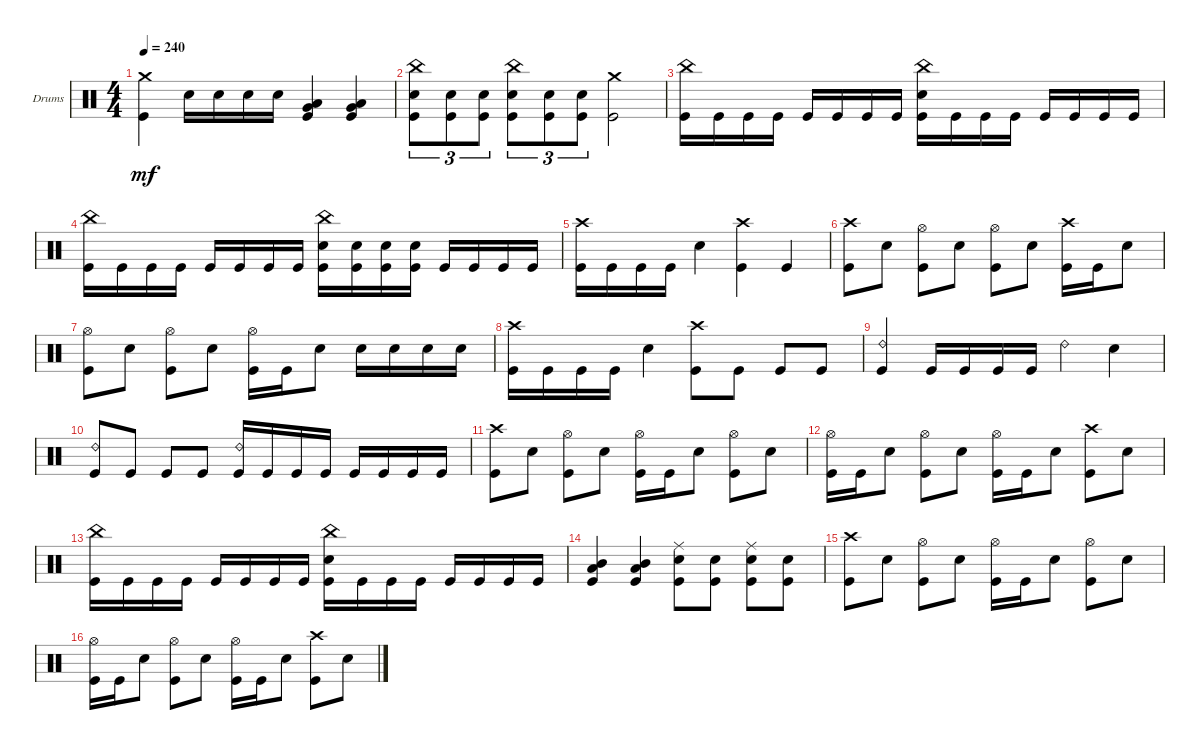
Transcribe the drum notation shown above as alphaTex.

\defaultSystemsLayout 4
\bracketExtendMode groupsimilarinstruments
\firstSystemTrackNameOrientation horizontal
\otherSystemsTrackNameOrientation horizontal
\track ("Drumkit" "Drums") {instrument percussion}
\staff {score}
\articulation defaults
\ts (4 4)
\tempo 240
\clef neutral
\scale
0.333333
\ks c
("Crash medium (hit)" "Kick (hit)").4{dy mf} "Snare (hit) 2".16 "Snare (hit) 2".16 "Snare (hit) 2".16 "Snare (hit) 2".16 ("Low Tom (hit)" "Very Low Tom (hit)" "Kick (hit)").4 ("Low Tom (hit)" "Very Low Tom (hit)" "Kick (hit)").4 |
\scale
0.333333 ("Snare (hit) 2" "China (hit)" "Kick (hit)").8{tu (3 2)} ("Snare (hit) 2" "Kick (hit)").8{tu (3 2)} ("Snare (hit) 2" "Kick (hit)").8{tu (3 2)} ("Snare (hit) 2" "China (hit)" "Kick (hit)").8{tu (3 2)} ("Snare (hit) 2" "Kick (hit)").8{tu (3 2)} ("Snare (hit) 2" "Kick (hit)").8{tu (3 2)} ("Crash medium (hit)" "Kick (hit)").2 |
\scale
0.333333 ("Kick (hit)" "China (hit)").16 "Kick (hit)".16 "Kick (hit)".16 "Kick (hit)".16 "Kick (hit)".16 "Kick (hit)".16 "Kick (hit)".16 "Kick (hit)".16 ("Kick (hit)" "Snare (hit) 2" "China (hit)").16 "Kick (hit)".16 "Kick (hit)".16 "Kick (hit)".16 "Kick (hit)".16 "Kick (hit)".16 "Kick (hit)".16 "Kick (hit)".16 |
\scale
0.333333 ("Kick (hit)" "China (hit)").16 "Kick (hit)".16 "Kick (hit)".16 "Kick (hit)".16 "Kick (hit)".16 "Kick (hit)".16 "Kick (hit)".16 "Kick (hit)".16 ("Kick (hit)" "Snare (hit) 2" "China (hit)").16 ("Kick (hit)" "Snare (hit) 2").16 ("Kick (hit)" "Snare (hit) 2").16 ("Kick (hit)" "Snare (hit) 2").16 "Kick (hit)".16 "Kick (hit)".16 "Kick (hit)".16 "Kick (hit)".16 |
\scale
0.333333 ("Kick (hit)" "Crash high (hit)").16 "Kick (hit)".16 "Kick (hit)".16 "Kick (hit)".16 "Snare (hit) 2".4 ("Kick (hit)" "Crash high (hit)").4 "Kick (hit)".4 |
\scale
0.333333 ("Crash high (hit)" "Kick (hit)").8 "Snare (hit) 2".8 ("Kick (hit)" "Hi-Hat (open)").8 "Snare (hit) 2".8 ("Kick (hit)" "Hi-Hat (open)").8 "Snare (hit) 2".8 ("Kick (hit)" "Crash high (hit)").16 "Kick (hit)".16 "Snare (hit) 2".8 |
\scale
0.333333 ("Kick (hit)" "Hi-Hat (open)").8 "Snare (hit) 2".8 ("Kick (hit)" "Hi-Hat (open)").8 "Snare (hit) 2".8 ("Kick (hit)" "Hi-Hat (open)").16 "Kick (hit)".16 "Snare (hit) 2".8 "Snare (hit) 2".16 "Snare (hit) 2".16 "Snare (hit) 2".16 "Snare (hit) 2".16 |
\scale
0.333333 ("Kick (hit)" "Crash high (hit)").16 "Kick (hit)".16 "Kick (hit)".16 "Kick (hit)".16 "Snare (hit) 2".4 ("Kick (hit)" "Crash high (hit)").8 "Kick (hit)".8 "Kick (hit)".8 "Kick (hit)".8 |
\scale
0.333333 ("Ride (bell) 2" "Kick (hit)").4 "Kick (hit)".16 "Kick (hit)".16 "Kick (hit)".16 "Kick (hit)".16 "Ride (bell) 2".4 "Snare (hit) 2".4 |
\scale
0.333333 ("Kick (hit)" "Ride (bell) 2").8 "Kick (hit)".8 "Kick (hit)".8 "Kick (hit)".8 ("Kick (hit)" "Ride (bell) 2").16 "Kick (hit)".16 "Kick (hit)".16 "Kick (hit)".16 "Kick (hit)".16 "Kick (hit)".16 "Kick (hit)".16 "Kick (hit)".16 |
\scale
0.333333 ("Crash high (hit)" "Kick (hit)").8 "Snare (hit) 2".8 ("Kick (hit)" "Hi-Hat (open)").8 "Snare (hit) 2".8 ("Kick (hit)" "Hi-Hat (open)").16 "Kick (hit)".16 "Snare (hit) 2".8 ("Kick (hit)" "Hi-Hat (open)").8 "Snare (hit) 2".8 |
\scale
0.333333 ("Kick (hit)" "Hi-Hat (open)").16 "Kick (hit)".16 "Snare (hit) 2".8 ("Kick (hit)" "Hi-Hat (open)").8 "Snare (hit) 2".8 ("Kick (hit)" "Hi-Hat (open)").16 "Kick (hit)".16 "Snare (hit) 2".8 ("Kick (hit)" "Crash high (hit)").8 "Snare (hit) 2".8 |
\scale
0.333333 ("Kick (hit)" "China (hit)").16 "Kick (hit)".16 "Kick (hit)".16 "Kick (hit)".16 "Kick (hit)".16 "Kick (hit)".16 "Kick (hit)".16 "Kick (hit)".16 ("Kick (hit)" "Snare (hit) 2" "China (hit)").16 "Kick (hit)".16 "Kick (hit)".16 "Kick (hit)".16 "Kick (hit)".16 "Kick (hit)".16 "Kick (hit)".16 "Kick (hit)".16 |
\scale
0.333333 ("Mid Tom (hit)" "Low Tom (hit)" "Kick (hit)").4 ("Mid Tom (hit)" "Low Tom (hit)" "Kick (hit)").4 ("Snare (hit) 2" "Kick (hit)" "Ride (middle)").8 ("Snare (hit) 2" "Kick (hit)").8 ("Snare (hit) 2" "Kick (hit)" "Ride (middle)").8 ("Snare (hit) 2" "Kick (hit)").8 |
\scale
0.333333 ("Crash high (hit)" "Kick (hit)").8 "Snare (hit) 2".8 ("Kick (hit)" "Hi-Hat (open)").8 "Snare (hit) 2".8 ("Kick (hit)" "Hi-Hat (open)").16 "Kick (hit)".16 "Snare (hit) 2".8 ("Kick (hit)" "Hi-Hat (open)").8 "Snare (hit) 2".8 |
\scale
0.333333 ("Kick (hit)" "Hi-Hat (open)").16 "Kick (hit)".16 "Snare (hit) 2".8 ("Kick (hit)" "Hi-Hat (open)").8 "Snare (hit) 2".8 ("Kick (hit)" "Hi-Hat (open)").16 "Kick (hit)".16 "Snare (hit) 2".8 ("Kick (hit)" "Crash high (hit)").8 "Snare (hit) 2".8
